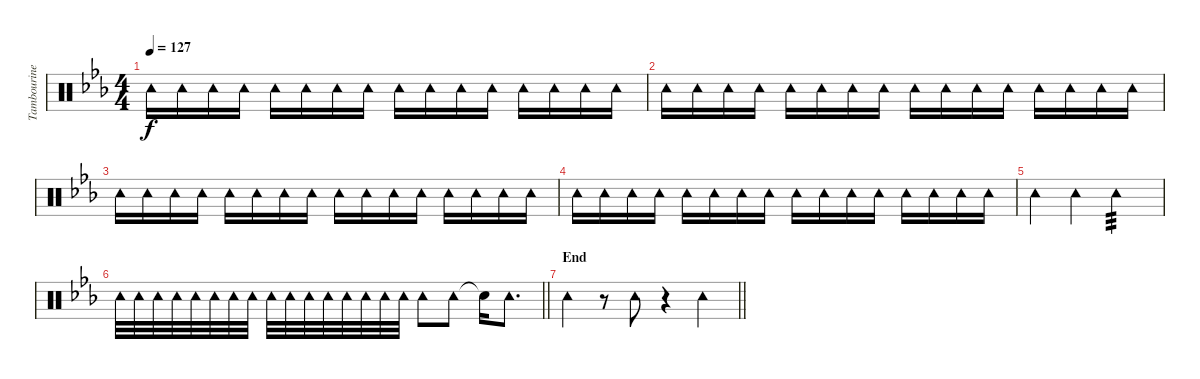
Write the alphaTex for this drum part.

\track ("Tambourine" "Tambourine") {instrument percussion}
\staff {score}
\articulation defaults
\ts (4 4)
\tempo 127
\clef neutral
\ks eb "Tambourine (hit)".16{dy f} "Tambourine (hit)".16 "Tambourine (hit)".16 "Tambourine (hit)".16 "Tambourine (hit)".16 "Tambourine (hit)".16 "Tambourine (hit)".16 "Tambourine (hit)".16 "Tambourine (hit)".16 "Tambourine (hit)".16 "Tambourine (hit)".16 "Tambourine (hit)".16 "Tambourine (hit)".16 "Tambourine (hit)".16 "Tambourine (hit)".16 "Tambourine (hit)".16
|
"Tambourine (hit)".16 "Tambourine (hit)".16 "Tambourine (hit)".16 "Tambourine (hit)".16 "Tambourine (hit)".16 "Tambourine (hit)".16 "Tambourine (hit)".16 "Tambourine (hit)".16 "Tambourine (hit)".16 "Tambourine (hit)".16 "Tambourine (hit)".16 "Tambourine (hit)".16 "Tambourine (hit)".16 "Tambourine (hit)".16 "Tambourine (hit)".16 "Tambourine (hit)".16 |
"Tambourine (hit)".16 "Tambourine (hit)".16 "Tambourine (hit)".16 "Tambourine (hit)".16 "Tambourine (hit)".16 "Tambourine (hit)".16 "Tambourine (hit)".16 "Tambourine (hit)".16 "Tambourine (hit)".16 "Tambourine (hit)".16 "Tambourine (hit)".16 "Tambourine (hit)".16 "Tambourine (hit)".16 "Tambourine (hit)".16 "Tambourine (hit)".16 "Tambourine (hit)".16 |
"Tambourine (hit)".16 "Tambourine (hit)".16 "Tambourine (hit)".16 "Tambourine (hit)".16 "Tambourine (hit)".16 "Tambourine (hit)".16 "Tambourine (hit)".16 "Tambourine (hit)".16 "Tambourine (hit)".16 "Tambourine (hit)".16 "Tambourine (hit)".16 "Tambourine (hit)".16 "Tambourine (hit)".16 "Tambourine (hit)".16 "Tambourine (hit)".16 "Tambourine (hit)".16 |
"Tambourine (hit)".4 "Tambourine (hit)".4 "Tambourine (hit)".2{tp 3} |
\barLineRight lightlight "Tambourine (hit)".32 "Tambourine (hit)".32 "Tambourine (hit)".32 "Tambourine (hit)".32 "Tambourine (hit)".32 "Tambourine (hit)".32 "Tambourine (hit)".32 "Tambourine (hit)".32 "Tambourine (hit)".32 "Tambourine (hit)".32 "Tambourine (hit)".32 "Tambourine (hit)".32 "Tambourine (hit)".32 "Tambourine (hit)".32 "Tambourine (hit)".32 "Tambourine (hit)".32 "Tambourine (hit)".8 "Tambourine (hit)".8 "Snare (hit)"{t}.16 "Tambourine (hit)".8{d}
|
\section ("" "End")
\barLineRight lightlight "Tambourine (hit)".4
r.8 "Tambourine (hit)".8 r.4 "Tambourine (hit)".4
